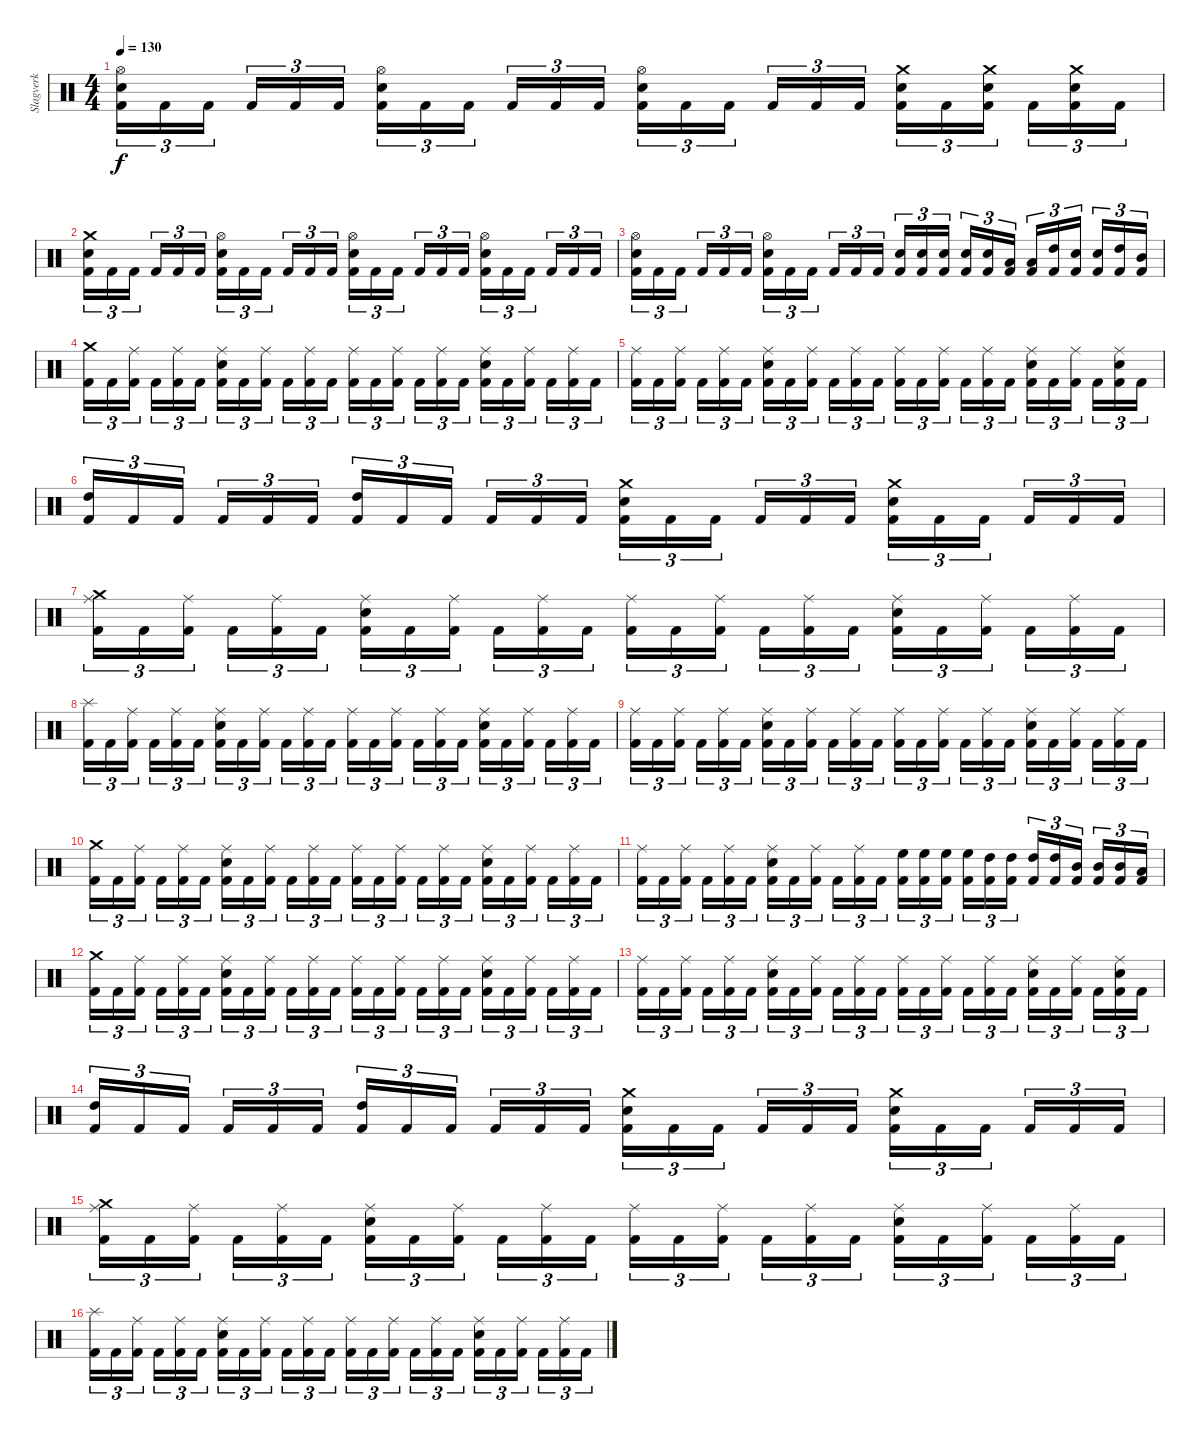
\track ("Slagverk" "Slagverk") {instrument percussion}
\staff {score}
\articulation defaults
\ts (4 4)
\tempo 130
\clef neutral
\ks c
("Kick (hit) 2" "Electric Snare (hit)" "Hi-Hat (open)").16{tu (3 2) dy f} "Kick (hit) 2".16{tu (3 2)} "Kick (hit) 2".16{tu (3 2)} "Kick (hit) 2".16{tu (3 2)} "Kick (hit) 2".16{tu (3 2)} "Kick (hit) 2".16{tu (3 2)} ("Kick (hit) 2" "Electric Snare (hit)" "Hi-Hat (open)").16{tu (3 2)} "Kick (hit) 2".16{tu (3 2)} "Kick (hit) 2".16{tu (3 2)} "Kick (hit) 2".16{tu (3 2)} "Kick (hit) 2".16{tu (3 2)} "Kick (hit) 2".16{tu (3 2)} ("Kick (hit) 2" "Electric Snare (hit)" "Hi-Hat (open)").16{tu (3 2)} "Kick (hit) 2".16{tu (3 2)} "Kick (hit) 2".16{tu (3 2)} "Kick (hit) 2".16{tu (3 2)} "Kick (hit) 2".16{tu (3 2)} "Kick (hit) 2".16{tu (3 2)} ("Kick (hit) 2" "Electric Snare (hit)" "Crash medium (hit)").16{tu (3 2)} "Kick (hit) 2".16{tu (3 2)} ("Kick (hit) 2" "Electric Snare (hit)" "Crash medium (hit)").16{tu (3 2)} "Kick (hit) 2".16{tu (3 2)} ("Kick (hit) 2" "Electric Snare (hit)" "Crash medium (hit)").16{tu (3 2)} "Kick (hit) 2".16{tu (3 2)} |
("Kick (hit) 2" "Electric Snare (hit)" "Crash medium (hit)").16{tu (3 2)} "Kick (hit) 2".16{tu (3 2)} "Kick (hit) 2".16{tu (3 2)} "Kick (hit) 2".16{tu (3 2)} "Kick (hit) 2".16{tu (3 2)} "Kick (hit) 2".16{tu (3 2)} ("Kick (hit) 2" "Electric Snare (hit)" "Hi-Hat (open)").16{tu (3 2)} "Kick (hit) 2".16{tu (3 2)} "Kick (hit) 2".16{tu (3 2)} "Kick (hit) 2".16{tu (3 2)} "Kick (hit) 2".16{tu (3 2)} "Kick (hit) 2".16{tu (3 2)} ("Kick (hit) 2" "Electric Snare (hit)" "Hi-Hat (open)").16{tu (3 2)} "Kick (hit) 2".16{tu (3 2)} "Kick (hit) 2".16{tu (3 2)} "Kick (hit) 2".16{tu (3 2)} "Kick (hit) 2".16{tu (3 2)} "Kick (hit) 2".16{tu (3 2)} ("Kick (hit) 2" "Electric Snare (hit)" "Hi-Hat (open)").16{tu (3 2)} "Kick (hit) 2".16{tu (3 2)} "Kick (hit) 2".16{tu (3 2)} "Kick (hit) 2".16{tu (3 2)} "Kick (hit) 2".16{tu (3 2)} "Kick (hit) 2".16{tu (3 2)} |
("Kick (hit) 2" "Electric Snare (hit)" "Hi-Hat (open)").16{tu (3 2)} "Kick (hit) 2".16{tu (3 2)} "Kick (hit) 2".16{tu (3 2)} "Kick (hit) 2".16{tu (3 2)} "Kick (hit) 2".16{tu (3 2)} "Kick (hit) 2".16{tu (3 2)} ("Kick (hit) 2" "Electric Snare (hit)" "Hi-Hat (open)").16{tu (3 2)} "Kick (hit) 2".16{tu (3 2)} "Kick (hit) 2".16{tu (3 2)} "Kick (hit) 2".16{tu (3 2)} "Kick (hit) 2".16{tu (3 2)} "Kick (hit) 2".16{tu (3 2)} ("Kick (hit) 2" "Electric Snare (hit)").16{tu (3 2)} ("Kick (hit) 2" "Electric Snare (hit)").16{tu (3 2)} ("Kick (hit) 2" "Electric Snare (hit)").16{tu (3 2)} ("Kick (hit) 2" "Electric Snare (hit)").16{tu (3 2)} ("Kick (hit) 2" "Electric Snare (hit)").16{tu (3 2)} ("Kick (hit) 2" "Low Tom (hit)").16{tu (3 2)} ("Kick (hit) 2" "Low Tom (hit)").16{tu (3 2)} ("Kick (hit) 2" "High Tom (hit)").16{tu (3 2)} ("Kick (hit) 2" "Electric Snare (hit)").16{tu (3 2)} ("Kick (hit) 2" "Electric Snare (hit)").16{tu (3 2)} ("Kick (hit) 2" "High Tom (hit)").16{tu (3 2)} ("Kick (hit) 2" "Mid Tom (hit)").16{tu (3 2)} |
("Kick (hit) 2" "Crash medium (hit)").16{tu (3 2)} "Kick (hit) 2".16{tu (3 2)} ("Kick (hit) 2" "Ride (middle)").16{tu (3 2)} "Kick (hit) 2".16{tu (3 2)} ("Kick (hit) 2" "Ride (middle)").16{tu (3 2)} "Kick (hit) 2".16{tu (3 2)} ("Kick (hit) 2" "Electric Snare (hit)" "Ride (middle)").16{tu (3 2)} "Kick (hit) 2".16{tu (3 2)} ("Kick (hit) 2" "Ride (middle)").16{tu (3 2)} "Kick (hit) 2".16{tu (3 2)} ("Kick (hit) 2" "Ride (middle)").16{tu (3 2)} "Kick (hit) 2".16{tu (3 2)} ("Kick (hit) 2" "Ride (middle)").16{tu (3 2)} "Kick (hit) 2".16{tu (3 2)} ("Kick (hit) 2" "Ride (middle)").16{tu (3 2)} "Kick (hit) 2".16{tu (3 2)} ("Kick (hit) 2" "Ride (middle)").16{tu (3 2)} "Kick (hit) 2".16{tu (3 2)} ("Kick (hit) 2" "Electric Snare (hit)" "Ride (middle)").16{tu (3 2)} "Kick (hit) 2".16{tu (3 2)} ("Kick (hit) 2" "Ride (middle)").16{tu (3 2)} "Kick (hit) 2".16{tu (3 2)} ("Kick (hit) 2" "Ride (middle)").16{tu (3 2)} "Kick (hit) 2".16{tu (3 2)} |
("Kick (hit) 2" "Ride (middle)").16{tu (3 2)} "Kick (hit) 2".16{tu (3 2)} ("Kick (hit) 2" "Ride (middle)").16{tu (3 2)} "Kick (hit) 2".16{tu (3 2)} ("Kick (hit) 2" "Ride (middle)").16{tu (3 2)} "Kick (hit) 2".16{tu (3 2)} ("Kick (hit) 2" "Electric Snare (hit)" "Ride (middle)").16{tu (3 2)} "Kick (hit) 2".16{tu (3 2)} ("Kick (hit) 2" "Ride (middle)").16{tu (3 2)} "Kick (hit) 2".16{tu (3 2)} ("Kick (hit) 2" "Ride (middle)").16{tu (3 2)} "Kick (hit) 2".16{tu (3 2)} ("Kick (hit) 2" "Ride (middle)").16{tu (3 2)} "Kick (hit) 2".16{tu (3 2)} ("Kick (hit) 2" "Ride (middle)").16{tu (3 2)} "Kick (hit) 2".16{tu (3 2)} ("Kick (hit) 2" "Ride (middle)").16{tu (3 2)} "Kick (hit) 2".16{tu (3 2)} ("Kick (hit) 2" "Electric Snare (hit)" "Ride (middle)").16{tu (3 2)} "Kick (hit) 2".16{tu (3 2)} ("Kick (hit) 2" "Ride (middle)").16{tu (3 2)} "Kick (hit) 2".16{tu (3 2)} ("Kick (hit) 2" "Electric Snare (hit)" "Ride (middle)").16{tu (3 2)} "Kick (hit) 2".16{tu (3 2)} |
("Kick (hit) 2" "High Tom (hit)").16{tu (3 2)} "Kick (hit) 2".16{tu (3 2)} "Kick (hit) 2".16{tu (3 2)} "Kick (hit) 2".16{tu (3 2)} "Kick (hit) 2".16{tu (3 2)} "Kick (hit) 2".16{tu (3 2)} ("Kick (hit) 2" "High Tom (hit)").16{tu (3 2)} "Kick (hit) 2".16{tu (3 2)} "Kick (hit) 2".16{tu (3 2)} "Kick (hit) 2".16{tu (3 2)} "Kick (hit) 2".16{tu (3 2)} "Kick (hit) 2".16{tu (3 2)} ("Kick (hit) 2" "Electric Snare (hit)" "Crash medium (hit)").16{tu (3 2)} "Kick (hit) 2".16{tu (3 2)} "Kick (hit) 2".16{tu (3 2)} "Kick (hit) 2".16{tu (3 2)} "Kick (hit) 2".16{tu (3 2)} "Kick (hit) 2".16{tu (3 2)} ("Kick (hit) 2" "Electric Snare (hit)" "Crash medium (hit)").16{tu (3 2)} "Kick (hit) 2".16{tu (3 2)} "Kick (hit) 2".16{tu (3 2)} "Kick (hit) 2".16{tu (3 2)} "Kick (hit) 2".16{tu (3 2)} "Kick (hit) 2".16{tu (3 2)} |
("Kick (hit) 2" "Crash medium (hit)" "Ride (middle)").16{tu (3 2)} "Kick (hit) 2".16{tu (3 2)} ("Kick (hit) 2" "Ride (middle)").16{tu (3 2)} "Kick (hit) 2".16{tu (3 2)} ("Kick (hit) 2" "Ride (middle)").16{tu (3 2)} "Kick (hit) 2".16{tu (3 2)} ("Kick (hit) 2" "Electric Snare (hit)" "Ride (middle)").16{tu (3 2)} "Kick (hit) 2".16{tu (3 2)} ("Kick (hit) 2" "Ride (middle)").16{tu (3 2)} "Kick (hit) 2".16{tu (3 2)} ("Kick (hit) 2" "Ride (middle)").16{tu (3 2)} "Kick (hit) 2".16{tu (3 2)} ("Kick (hit) 2" "Ride (middle)").16{tu (3 2)} "Kick (hit) 2".16{tu (3 2)} ("Kick (hit) 2" "Ride (middle)").16{tu (3 2)} "Kick (hit) 2".16{tu (3 2)} ("Kick (hit) 2" "Ride (middle)").16{tu (3 2)} "Kick (hit) 2".16{tu (3 2)} ("Kick (hit) 2" "Electric Snare (hit)" "Ride (middle)").16{tu (3 2)} "Kick (hit) 2".16{tu (3 2)} ("Kick (hit) 2" "Ride (middle)").16{tu (3 2)} "Kick (hit) 2".16{tu (3 2)} ("Kick (hit) 2" "Ride (middle)").16{tu (3 2)} "Kick (hit) 2".16{tu (3 2)} |
("Kick (hit) 2" "Splash (hit)").16{tu (3 2)} "Kick (hit) 2".16{tu (3 2)} ("Kick (hit) 2" "Ride (middle)").16{tu (3 2)} "Kick (hit) 2".16{tu (3 2)} ("Kick (hit) 2" "Ride (middle)").16{tu (3 2)} "Kick (hit) 2".16{tu (3 2)} ("Kick (hit) 2" "Electric Snare (hit)" "Ride (middle)").16{tu (3 2)} "Kick (hit) 2".16{tu (3 2)} ("Kick (hit) 2" "Ride (middle)").16{tu (3 2)} "Kick (hit) 2".16{tu (3 2)} ("Kick (hit) 2" "Ride (middle)").16{tu (3 2)} "Kick (hit) 2".16{tu (3 2)} ("Kick (hit) 2" "Ride (middle)").16{tu (3 2)} "Kick (hit) 2".16{tu (3 2)} ("Kick (hit) 2" "Ride (middle)").16{tu (3 2)} "Kick (hit) 2".16{tu (3 2)} ("Kick (hit) 2" "Ride (middle)").16{tu (3 2)} "Kick (hit) 2".16{tu (3 2)} ("Kick (hit) 2" "Electric Snare (hit)" "Ride (middle)").16{tu (3 2)} "Kick (hit) 2".16{tu (3 2)} ("Kick (hit) 2" "Ride (middle)").16{tu (3 2)} "Kick (hit) 2".16{tu (3 2)} ("Kick (hit) 2" "Ride (middle)").16{tu (3 2)} "Kick (hit) 2".16{tu (3 2)} |
("Kick (hit) 2" "Ride (middle)").16{tu (3 2)} "Kick (hit) 2".16{tu (3 2)} ("Kick (hit) 2" "Ride (middle)").16{tu (3 2)} "Kick (hit) 2".16{tu (3 2)} ("Kick (hit) 2" "Ride (middle)").16{tu (3 2)} "Kick (hit) 2".16{tu (3 2)} ("Kick (hit) 2" "Electric Snare (hit)" "Ride (middle)").16{tu (3 2)} "Kick (hit) 2".16{tu (3 2)} ("Kick (hit) 2" "Ride (middle)").16{tu (3 2)} "Kick (hit) 2".16{tu (3 2)} ("Kick (hit) 2" "Ride (middle)").16{tu (3 2)} "Kick (hit) 2".16{tu (3 2)} ("Kick (hit) 2" "Ride (middle)").16{tu (3 2)} "Kick (hit) 2".16{tu (3 2)} ("Kick (hit) 2" "Ride (middle)").16{tu (3 2)} "Kick (hit) 2".16{tu (3 2)} ("Kick (hit) 2" "Ride (middle)").16{tu (3 2)} "Kick (hit) 2".16{tu (3 2)} ("Kick (hit) 2" "Electric Snare (hit)" "Ride (middle)").16{tu (3 2)} "Kick (hit) 2".16{tu (3 2)} ("Kick (hit) 2" "Ride (middle)").16{tu (3 2)} "Kick (hit) 2".16{tu (3 2)} ("Kick (hit) 2" "Ride (middle)").16{tu (3 2)} "Kick (hit) 2".16{tu (3 2)} |
("Kick (hit) 2" "Crash medium (hit)").16{tu (3 2)} "Kick (hit) 2".16{tu (3 2)} ("Kick (hit) 2" "Ride (middle)").16{tu (3 2)} "Kick (hit) 2".16{tu (3 2)} ("Kick (hit) 2" "Ride (middle)").16{tu (3 2)} "Kick (hit) 2".16{tu (3 2)} ("Kick (hit) 2" "Electric Snare (hit)" "Ride (middle)").16{tu (3 2)} "Kick (hit) 2".16{tu (3 2)} ("Kick (hit) 2" "Ride (middle)").16{tu (3 2)} "Kick (hit) 2".16{tu (3 2)} ("Kick (hit) 2" "Ride (middle)").16{tu (3 2)} "Kick (hit) 2".16{tu (3 2)} ("Kick (hit) 2" "Ride (middle)").16{tu (3 2)} "Kick (hit) 2".16{tu (3 2)} ("Kick (hit) 2" "Ride (middle)").16{tu (3 2)} "Kick (hit) 2".16{tu (3 2)} ("Kick (hit) 2" "Ride (middle)").16{tu (3 2)} "Kick (hit) 2".16{tu (3 2)} ("Kick (hit) 2" "Electric Snare (hit)" "Ride (middle)").16{tu (3 2)} "Kick (hit) 2".16{tu (3 2)} ("Kick (hit) 2" "Ride (middle)").16{tu (3 2)} "Kick (hit) 2".16{tu (3 2)} ("Kick (hit) 2" "Ride (middle)").16{tu (3 2)} "Kick (hit) 2".16{tu (3 2)} |
("Kick (hit) 2" "Ride (middle)").16{tu (3 2)} "Kick (hit) 2".16{tu (3 2)} ("Kick (hit) 2" "Ride (middle)").16{tu (3 2)} "Kick (hit) 2".16{tu (3 2)} ("Kick (hit) 2" "Ride (middle)").16{tu (3 2)} "Kick (hit) 2".16{tu (3 2)} ("Kick (hit) 2" "Electric Snare (hit)" "Ride (middle)").16{tu (3 2)} "Kick (hit) 2".16{tu (3 2)} ("Kick (hit) 2" "Ride (middle)").16{tu (3 2)} "Kick (hit) 2".16{tu (3 2)} ("Kick (hit) 2" "Ride (middle)").16{tu (3 2)} "Kick (hit) 2".16{tu (3 2)} ("Kick (hit) 2" "High Floor Tom (hit)").16{tu (3 2)} ("Kick (hit) 2" "High Floor Tom (hit)").16{tu (3 2)} ("Kick (hit) 2" "High Floor Tom (hit)").16{tu (3 2)} ("Kick (hit) 2" "High Floor Tom (hit)").16{tu (3 2)} ("Kick (hit) 2" "High Tom (hit)").16{tu (3 2)} ("Kick (hit) 2" "High Tom (hit)").16{tu (3 2)} ("Kick (hit) 2" "High Tom (hit)").16{tu (3 2)} ("Kick (hit) 2" "High Tom (hit)").16{tu (3 2)} ("Kick (hit) 2" "Mid Tom (hit)").16{tu (3 2)} ("Kick (hit) 2" "Mid Tom (hit)").16{tu (3 2)} ("Kick (hit) 2" "Mid Tom (hit)").16{tu (3 2)} ("Kick (hit) 2" "Low Tom (hit)").16{tu (3 2)} |
("Kick (hit) 2" "Crash medium (hit)").16{tu (3 2)} "Kick (hit) 2".16{tu (3 2)} ("Kick (hit) 2" "Ride (middle)").16{tu (3 2)} "Kick (hit) 2".16{tu (3 2)} ("Kick (hit) 2" "Ride (middle)").16{tu (3 2)} "Kick (hit) 2".16{tu (3 2)} ("Kick (hit) 2" "Electric Snare (hit)" "Ride (middle)").16{tu (3 2)} "Kick (hit) 2".16{tu (3 2)} ("Kick (hit) 2" "Ride (middle)").16{tu (3 2)} "Kick (hit) 2".16{tu (3 2)} ("Kick (hit) 2" "Ride (middle)").16{tu (3 2)} "Kick (hit) 2".16{tu (3 2)} ("Kick (hit) 2" "Ride (middle)").16{tu (3 2)} "Kick (hit) 2".16{tu (3 2)} ("Kick (hit) 2" "Ride (middle)").16{tu (3 2)} "Kick (hit) 2".16{tu (3 2)} ("Kick (hit) 2" "Ride (middle)").16{tu (3 2)} "Kick (hit) 2".16{tu (3 2)} ("Kick (hit) 2" "Electric Snare (hit)" "Ride (middle)").16{tu (3 2)} "Kick (hit) 2".16{tu (3 2)} ("Kick (hit) 2" "Ride (middle)").16{tu (3 2)} "Kick (hit) 2".16{tu (3 2)} ("Kick (hit) 2" "Ride (middle)").16{tu (3 2)} "Kick (hit) 2".16{tu (3 2)} |
("Kick (hit) 2" "Ride (middle)").16{tu (3 2)} "Kick (hit) 2".16{tu (3 2)} ("Kick (hit) 2" "Ride (middle)").16{tu (3 2)} "Kick (hit) 2".16{tu (3 2)} ("Kick (hit) 2" "Ride (middle)").16{tu (3 2)} "Kick (hit) 2".16{tu (3 2)} ("Kick (hit) 2" "Electric Snare (hit)" "Ride (middle)").16{tu (3 2)} "Kick (hit) 2".16{tu (3 2)} ("Kick (hit) 2" "Ride (middle)").16{tu (3 2)} "Kick (hit) 2".16{tu (3 2)} ("Kick (hit) 2" "Ride (middle)").16{tu (3 2)} "Kick (hit) 2".16{tu (3 2)} ("Kick (hit) 2" "Ride (middle)").16{tu (3 2)} "Kick (hit) 2".16{tu (3 2)} ("Kick (hit) 2" "Ride (middle)").16{tu (3 2)} "Kick (hit) 2".16{tu (3 2)} ("Kick (hit) 2" "Ride (middle)").16{tu (3 2)} "Kick (hit) 2".16{tu (3 2)} ("Kick (hit) 2" "Electric Snare (hit)" "Ride (middle)").16{tu (3 2)} "Kick (hit) 2".16{tu (3 2)} ("Kick (hit) 2" "Ride (middle)").16{tu (3 2)} "Kick (hit) 2".16{tu (3 2)} ("Kick (hit) 2" "Electric Snare (hit)" "Ride (middle)").16{tu (3 2)} "Kick (hit) 2".16{tu (3 2)} |
("Kick (hit) 2" "High Tom (hit)").16{tu (3 2)} "Kick (hit) 2".16{tu (3 2)} "Kick (hit) 2".16{tu (3 2)} "Kick (hit) 2".16{tu (3 2)} "Kick (hit) 2".16{tu (3 2)} "Kick (hit) 2".16{tu (3 2)} ("Kick (hit) 2" "High Tom (hit)").16{tu (3 2)} "Kick (hit) 2".16{tu (3 2)} "Kick (hit) 2".16{tu (3 2)} "Kick (hit) 2".16{tu (3 2)} "Kick (hit) 2".16{tu (3 2)} "Kick (hit) 2".16{tu (3 2)} ("Kick (hit) 2" "Electric Snare (hit)" "Crash medium (hit)").16{tu (3 2)} "Kick (hit) 2".16{tu (3 2)} "Kick (hit) 2".16{tu (3 2)} "Kick (hit) 2".16{tu (3 2)} "Kick (hit) 2".16{tu (3 2)} "Kick (hit) 2".16{tu (3 2)} ("Kick (hit) 2" "Electric Snare (hit)" "Crash medium (hit)").16{tu (3 2)} "Kick (hit) 2".16{tu (3 2)} "Kick (hit) 2".16{tu (3 2)} "Kick (hit) 2".16{tu (3 2)} "Kick (hit) 2".16{tu (3 2)} "Kick (hit) 2".16{tu (3 2)} |
("Kick (hit) 2" "Crash medium (hit)" "Ride (middle)").16{tu (3 2)} "Kick (hit) 2".16{tu (3 2)} ("Kick (hit) 2" "Ride (middle)").16{tu (3 2)} "Kick (hit) 2".16{tu (3 2)} ("Kick (hit) 2" "Ride (middle)").16{tu (3 2)} "Kick (hit) 2".16{tu (3 2)} ("Kick (hit) 2" "Electric Snare (hit)" "Ride (middle)").16{tu (3 2)} "Kick (hit) 2".16{tu (3 2)} ("Kick (hit) 2" "Ride (middle)").16{tu (3 2)} "Kick (hit) 2".16{tu (3 2)} ("Kick (hit) 2" "Ride (middle)").16{tu (3 2)} "Kick (hit) 2".16{tu (3 2)} ("Kick (hit) 2" "Ride (middle)").16{tu (3 2)} "Kick (hit) 2".16{tu (3 2)} ("Kick (hit) 2" "Ride (middle)").16{tu (3 2)} "Kick (hit) 2".16{tu (3 2)} ("Kick (hit) 2" "Ride (middle)").16{tu (3 2)} "Kick (hit) 2".16{tu (3 2)} ("Kick (hit) 2" "Electric Snare (hit)" "Ride (middle)").16{tu (3 2)} "Kick (hit) 2".16{tu (3 2)} ("Kick (hit) 2" "Ride (middle)").16{tu (3 2)} "Kick (hit) 2".16{tu (3 2)} ("Kick (hit) 2" "Ride (middle)").16{tu (3 2)} "Kick (hit) 2".16{tu (3 2)} |
("Kick (hit) 2" "Splash (hit)").16{tu (3 2)} "Kick (hit) 2".16{tu (3 2)} ("Kick (hit) 2" "Ride (middle)").16{tu (3 2)} "Kick (hit) 2".16{tu (3 2)} ("Kick (hit) 2" "Ride (middle)").16{tu (3 2)} "Kick (hit) 2".16{tu (3 2)} ("Kick (hit) 2" "Electric Snare (hit)" "Ride (middle)").16{tu (3 2)} "Kick (hit) 2".16{tu (3 2)} ("Kick (hit) 2" "Ride (middle)").16{tu (3 2)} "Kick (hit) 2".16{tu (3 2)} ("Kick (hit) 2" "Ride (middle)").16{tu (3 2)} "Kick (hit) 2".16{tu (3 2)} ("Kick (hit) 2" "Ride (middle)").16{tu (3 2)} "Kick (hit) 2".16{tu (3 2)} ("Kick (hit) 2" "Ride (middle)").16{tu (3 2)} "Kick (hit) 2".16{tu (3 2)} ("Kick (hit) 2" "Ride (middle)").16{tu (3 2)} "Kick (hit) 2".16{tu (3 2)} ("Kick (hit) 2" "Electric Snare (hit)" "Ride (middle)").16{tu (3 2)} "Kick (hit) 2".16{tu (3 2)} ("Kick (hit) 2" "Ride (middle)").16{tu (3 2)} "Kick (hit) 2".16{tu (3 2)} ("Kick (hit) 2" "Ride (middle)").16{tu (3 2)} "Kick (hit) 2".16{tu (3 2)}
